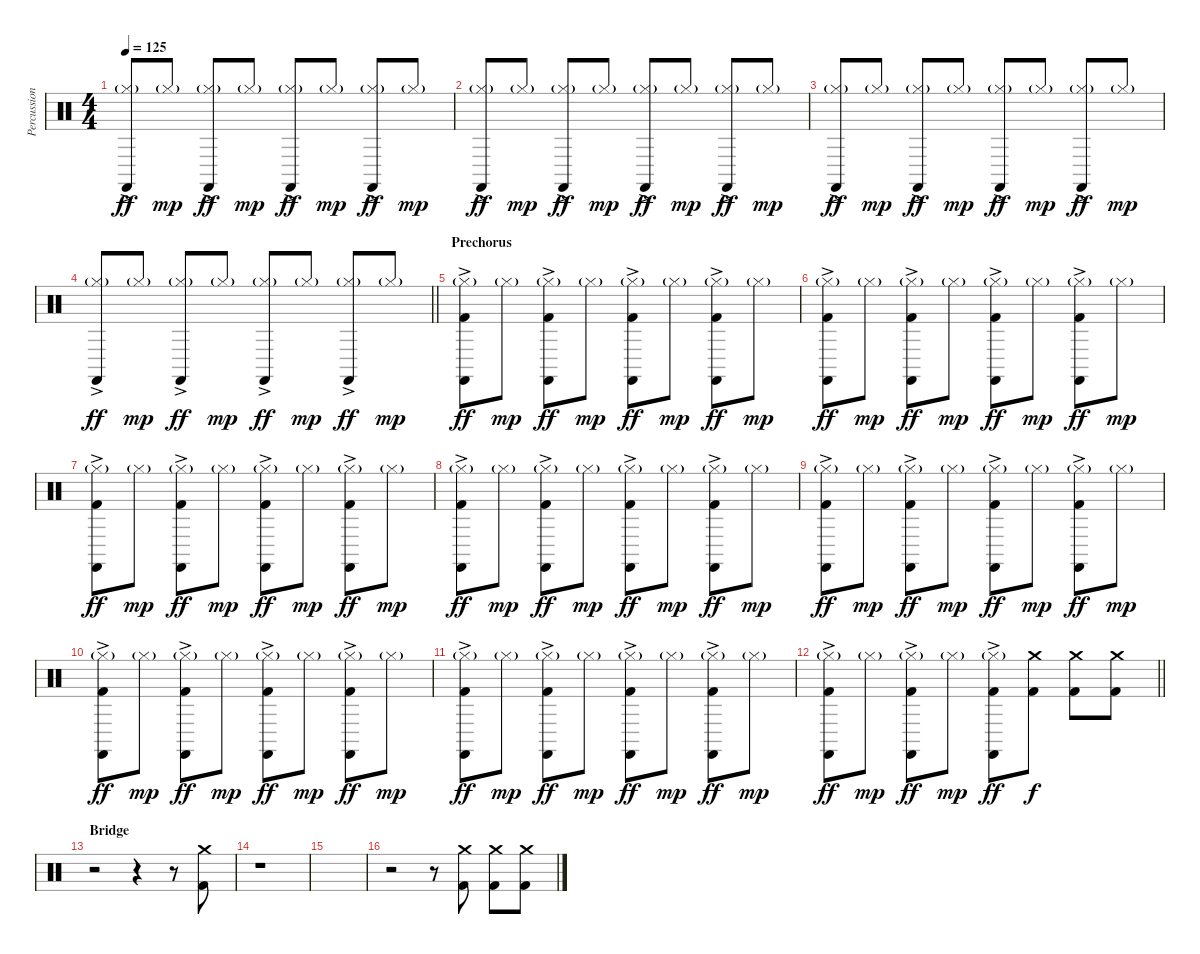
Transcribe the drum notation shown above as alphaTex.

\track ("Percussion" "Percussion") {instrument percussion}
\staff {score}
\articulation defaults
\ts (4 4)
\tempo 125
\clef neutral
\ks c
("Hi-Hat (closed)"{g} "Castanets (hit)"{ac}).8{dy ff} "Hi-Hat (closed)"{g}.8{dy mp} ("Hi-Hat (closed)"{g} "Castanets (hit)"{ac}).8{dy ff} "Hi-Hat (closed)"{g}.8{dy mp} ("Hi-Hat (closed)"{g} "Castanets (hit)"{ac}).8{dy ff} "Hi-Hat (closed)"{g}.8{dy mp} ("Hi-Hat (closed)"{g} "Castanets (hit)"{ac}).8{dy ff} "Hi-Hat (closed)"{g}.8{dy mp} |
("Hi-Hat (closed)"{g} "Castanets (hit)"{ac}).8{dy ff} "Hi-Hat (closed)"{g}.8{dy mp} ("Hi-Hat (closed)"{g} "Castanets (hit)"{ac}).8{dy ff} "Hi-Hat (closed)"{g}.8{dy mp} ("Hi-Hat (closed)"{g} "Castanets (hit)"{ac}).8{dy ff} "Hi-Hat (closed)"{g}.8{dy mp} ("Hi-Hat (closed)"{g} "Castanets (hit)"{ac}).8{dy ff} "Hi-Hat (closed)"{g}.8{dy mp} |
("Hi-Hat (closed)"{g} "Castanets (hit)"{ac}).8{dy ff} "Hi-Hat (closed)"{g}.8{dy mp} ("Hi-Hat (closed)"{g} "Castanets (hit)"{ac}).8{dy ff} "Hi-Hat (closed)"{g}.8{dy mp} ("Hi-Hat (closed)"{g} "Castanets (hit)"{ac}).8{dy ff} "Hi-Hat (closed)"{g}.8{dy mp} ("Hi-Hat (closed)"{g} "Castanets (hit)"{ac}).8{dy ff} "Hi-Hat (closed)"{g}.8{dy mp} |
\barLineRight lightlight
("Hi-Hat (closed)"{g} "Castanets (hit)"{ac}).8{dy ff} "Hi-Hat (closed)"{g}.8{dy mp} ("Hi-Hat (closed)"{g} "Castanets (hit)"{ac}).8{dy ff} "Hi-Hat (closed)"{g}.8{dy mp} ("Hi-Hat (closed)"{g} "Castanets (hit)"{ac}).8{dy ff} "Hi-Hat (closed)"{g}.8{dy mp} ("Hi-Hat (closed)"{g} "Castanets (hit)"{ac}).8{dy ff} "Hi-Hat (closed)"{g}.8{dy mp} |
\section ("" "Prechorus")
("Hi-Hat (closed)"{g} "Castanets (hit)"{ac} "Kick (hit) 2").8{dy ff} "Hi-Hat (closed)"{g}.8{dy mp} ("Hi-Hat (closed)"{g} "Castanets (hit)"{ac} "Kick (hit) 2").8{dy ff} "Hi-Hat (closed)"{g}.8{dy mp} ("Hi-Hat (closed)"{g} "Castanets (hit)"{ac} "Kick (hit) 2").8{dy ff} "Hi-Hat (closed)"{g}.8{dy mp} ("Hi-Hat (closed)"{g} "Castanets (hit)"{ac} "Kick (hit) 2").8{dy ff} "Hi-Hat (closed)"{g}.8{dy mp} |
("Hi-Hat (closed)"{g} "Castanets (hit)"{ac} "Kick (hit) 2").8{dy ff} "Hi-Hat (closed)"{g}.8{dy mp} ("Hi-Hat (closed)"{g} "Castanets (hit)"{ac} "Kick (hit) 2").8{dy ff} "Hi-Hat (closed)"{g}.8{dy mp} ("Hi-Hat (closed)"{g} "Castanets (hit)"{ac} "Kick (hit) 2").8{dy ff} "Hi-Hat (closed)"{g}.8{dy mp} ("Hi-Hat (closed)"{g} "Castanets (hit)"{ac} "Kick (hit) 2").8{dy ff} "Hi-Hat (closed)"{g}.8{dy mp} |
("Hi-Hat (closed)"{g} "Castanets (hit)"{ac} "Kick (hit) 2").8{dy ff} "Hi-Hat (closed)"{g}.8{dy mp} ("Hi-Hat (closed)"{g} "Castanets (hit)"{ac} "Kick (hit) 2").8{dy ff} "Hi-Hat (closed)"{g}.8{dy mp} ("Hi-Hat (closed)"{g} "Castanets (hit)"{ac} "Kick (hit) 2").8{dy ff} "Hi-Hat (closed)"{g}.8{dy mp} ("Hi-Hat (closed)"{g} "Castanets (hit)"{ac} "Kick (hit) 2").8{dy ff} "Hi-Hat (closed)"{g}.8{dy mp} |
("Hi-Hat (closed)"{g} "Castanets (hit)"{ac} "Kick (hit) 2").8{dy ff} "Hi-Hat (closed)"{g}.8{dy mp} ("Hi-Hat (closed)"{g} "Castanets (hit)"{ac} "Kick (hit) 2").8{dy ff} "Hi-Hat (closed)"{g}.8{dy mp} ("Hi-Hat (closed)"{g} "Castanets (hit)"{ac} "Kick (hit) 2").8{dy ff} "Hi-Hat (closed)"{g}.8{dy mp} ("Hi-Hat (closed)"{g} "Castanets (hit)"{ac} "Kick (hit) 2").8{dy ff} "Hi-Hat (closed)"{g}.8{dy mp} |
("Hi-Hat (closed)"{g} "Castanets (hit)"{ac} "Kick (hit) 2").8{dy ff} "Hi-Hat (closed)"{g}.8{dy mp} ("Hi-Hat (closed)"{g} "Castanets (hit)"{ac} "Kick (hit) 2").8{dy ff} "Hi-Hat (closed)"{g}.8{dy mp} ("Hi-Hat (closed)"{g} "Castanets (hit)"{ac} "Kick (hit) 2").8{dy ff} "Hi-Hat (closed)"{g}.8{dy mp} ("Hi-Hat (closed)"{g} "Castanets (hit)"{ac} "Kick (hit) 2").8{dy ff} "Hi-Hat (closed)"{g}.8{dy mp} |
("Hi-Hat (closed)"{g} "Castanets (hit)"{ac} "Kick (hit) 2").8{dy ff} "Hi-Hat (closed)"{g}.8{dy mp} ("Hi-Hat (closed)"{g} "Castanets (hit)"{ac} "Kick (hit) 2").8{dy ff} "Hi-Hat (closed)"{g}.8{dy mp} ("Hi-Hat (closed)"{g} "Castanets (hit)"{ac} "Kick (hit) 2").8{dy ff} "Hi-Hat (closed)"{g}.8{dy mp} ("Hi-Hat (closed)"{g} "Castanets (hit)"{ac} "Kick (hit) 2").8{dy ff} "Hi-Hat (closed)"{g}.8{dy mp} |
("Hi-Hat (closed)"{g} "Castanets (hit)"{ac} "Kick (hit) 2").8{dy ff} "Hi-Hat (closed)"{g}.8{dy mp} ("Hi-Hat (closed)"{g} "Castanets (hit)"{ac} "Kick (hit) 2").8{dy ff} "Hi-Hat (closed)"{g}.8{dy mp} ("Hi-Hat (closed)"{g} "Castanets (hit)"{ac} "Kick (hit) 2").8{dy ff} "Hi-Hat (closed)"{g}.8{dy mp} ("Hi-Hat (closed)"{g} "Castanets (hit)"{ac} "Kick (hit) 2").8{dy ff} "Hi-Hat (closed)"{g}.8{dy mp} |
\barLineRight lightlight
("Hi-Hat (closed)"{g} "Castanets (hit)"{ac} "Kick (hit) 2").8{dy ff} "Hi-Hat (closed)"{g}.8{dy mp} ("Hi-Hat (closed)"{g} "Castanets (hit)"{ac} "Kick (hit) 2").8{dy ff} "Hi-Hat (closed)"{g}.8{dy mp} ("Hi-Hat (closed)"{g} "Castanets (hit)"{ac} "Kick (hit) 2").8{dy ff} ("Crash medium (hit)" "Kick (hit) 2").8{dy f} ("Crash medium (hit)" "Kick (hit) 2").8 ("Crash medium (hit)" "Kick (hit) 2").8 |
\section ("" "Bridge")
r.2{volume 0} r.4 r.8 ("Crash medium (hit)" "Kick (hit) 2").8{volume 13} |
r.1{volume 0} |
|
r.2 r.8 ("Crash medium (hit)" "Kick (hit) 2").8{volume 13} ("Crash medium (hit)" "Kick (hit) 2").8 ("Crash medium (hit)" "Kick (hit) 2").8
